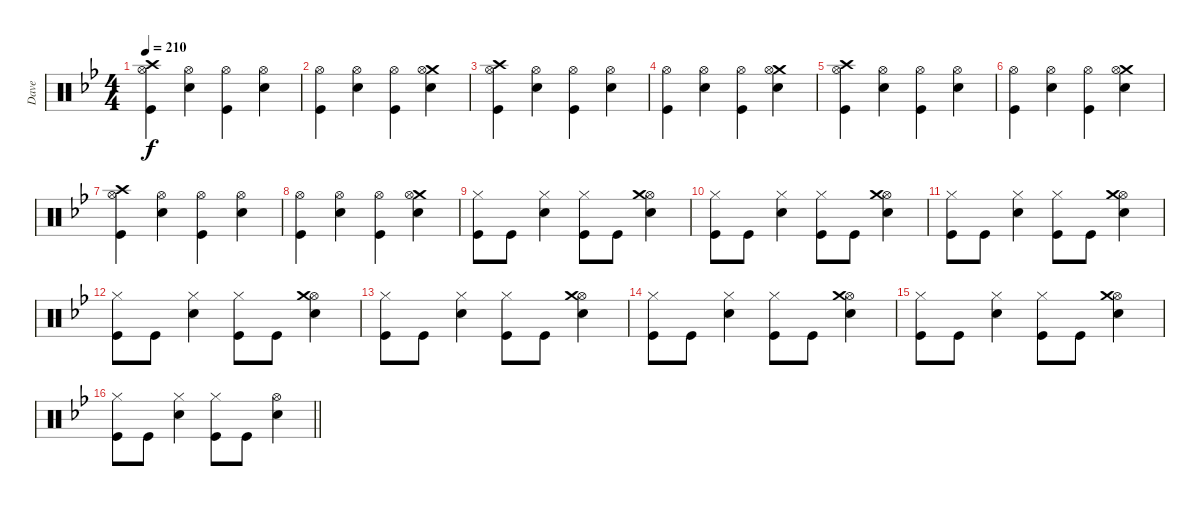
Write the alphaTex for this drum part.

\track ("Dave" "Dave") {instrument percussion}
\staff {score}
\articulation defaults
\ts (4 4)
\tempo 210
\clef neutral
\ks gminor
("Crash high (hit)" "Hi-Hat (open)" "Kick (hit)").4{dy f} ("Hi-Hat (open)" "Snare (hit) 2").4 ("Hi-Hat (open)" "Kick (hit)").4 ("Hi-Hat (open)" "Snare (hit) 2").4 |
("Hi-Hat (open)" "Kick (hit)").4 ("Hi-Hat (open)" "Snare (hit) 2").4 ("Hi-Hat (open)" "Kick (hit)").4 ("Crash medium (hit)" "Hi-Hat (open)" "Snare (hit) 2").4 |
("Crash high (hit)" "Hi-Hat (open)" "Kick (hit)").4 ("Hi-Hat (open)" "Snare (hit) 2").4 ("Hi-Hat (open)" "Kick (hit)").4 ("Hi-Hat (open)" "Snare (hit) 2").4 |
("Hi-Hat (open)" "Kick (hit)").4 ("Hi-Hat (open)" "Snare (hit) 2").4 ("Hi-Hat (open)" "Kick (hit)").4 ("Crash medium (hit)" "Hi-Hat (open)" "Snare (hit) 2").4 |
("Crash high (hit)" "Hi-Hat (open)" "Kick (hit)").4 ("Hi-Hat (open)" "Snare (hit) 2").4 ("Hi-Hat (open)" "Kick (hit)").4 ("Hi-Hat (open)" "Snare (hit) 2").4 |
("Hi-Hat (open)" "Kick (hit)").4 ("Hi-Hat (open)" "Snare (hit) 2").4 ("Hi-Hat (open)" "Kick (hit)").4 ("Crash medium (hit)" "Hi-Hat (open)" "Snare (hit) 2").4 |
("Crash high (hit)" "Hi-Hat (open)" "Kick (hit)").4 ("Hi-Hat (open)" "Snare (hit) 2").4 ("Hi-Hat (open)" "Kick (hit)").4 ("Hi-Hat (open)" "Snare (hit) 2").4 |
("Hi-Hat (open)" "Kick (hit)").4 ("Hi-Hat (open)" "Snare (hit) 2").4 ("Hi-Hat (open)" "Kick (hit)").4 ("Crash medium (hit)" "Hi-Hat (open)" "Snare (hit) 2").4 |
("Hi-Hat (closed)" "Kick (hit)").8 "Kick (hit)".8 ("Hi-Hat (closed)" "Snare (hit) 2").4 ("Hi-Hat (closed)" "Kick (hit)").8 "Kick (hit)".8 ("Hi-Hat (open)" "Crash medium (hit)" "Snare (hit) 2").4 |
("Hi-Hat (closed)" "Kick (hit)").8 "Kick (hit)".8 ("Hi-Hat (closed)" "Snare (hit) 2").4 ("Hi-Hat (closed)" "Kick (hit)").8 "Kick (hit)".8 ("Hi-Hat (open)" "Crash medium (hit)" "Snare (hit) 2").4 |
("Hi-Hat (closed)" "Kick (hit)").8 "Kick (hit)".8 ("Hi-Hat (closed)" "Snare (hit) 2").4 ("Hi-Hat (closed)" "Kick (hit)").8 "Kick (hit)".8 ("Hi-Hat (open)" "Crash medium (hit)" "Snare (hit) 2").4 |
("Hi-Hat (closed)" "Kick (hit)").8 "Kick (hit)".8 ("Hi-Hat (closed)" "Snare (hit) 2").4 ("Hi-Hat (closed)" "Kick (hit)").8 "Kick (hit)".8 ("Hi-Hat (open)" "Crash medium (hit)" "Snare (hit) 2").4 |
("Hi-Hat (closed)" "Kick (hit)").8 "Kick (hit)".8 ("Hi-Hat (closed)" "Snare (hit) 2").4 ("Hi-Hat (closed)" "Kick (hit)").8 "Kick (hit)".8 ("Hi-Hat (open)" "Crash medium (hit)" "Snare (hit) 2").4 |
("Hi-Hat (closed)" "Kick (hit)").8 "Kick (hit)".8 ("Hi-Hat (closed)" "Snare (hit) 2").4 ("Hi-Hat (closed)" "Kick (hit)").8 "Kick (hit)".8 ("Hi-Hat (open)" "Crash medium (hit)" "Snare (hit) 2").4 |
("Hi-Hat (closed)" "Kick (hit)").8 "Kick (hit)".8 ("Hi-Hat (closed)" "Snare (hit) 2").4 ("Hi-Hat (closed)" "Kick (hit)").8 "Kick (hit)".8 ("Hi-Hat (open)" "Crash medium (hit)" "Snare (hit) 2").4 |
\barLineRight lightlight
("Hi-Hat (closed)" "Kick (hit)").8 "Kick (hit)".8 ("Hi-Hat (closed)" "Snare (hit) 2").4 ("Hi-Hat (closed)" "Kick (hit)").8 "Kick (hit)".8 ("Hi-Hat (open)" "Snare (hit) 2").4
